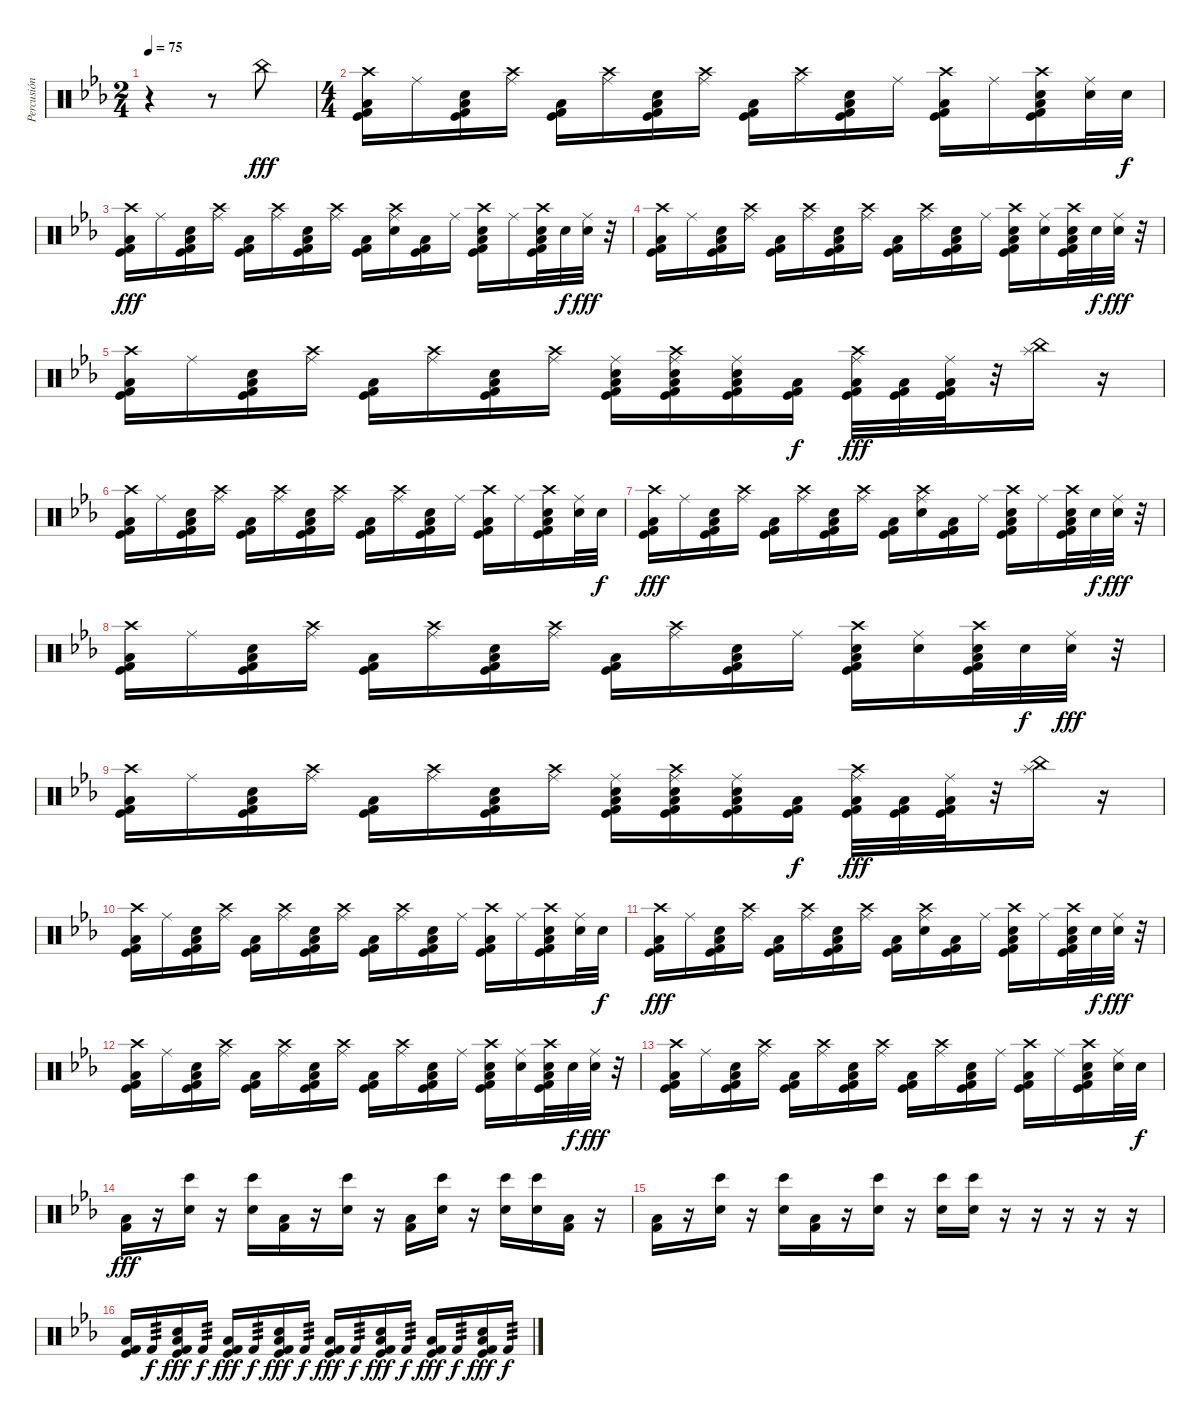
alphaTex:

\track ("Percusión" "Percusión") {instrument percussion}
\staff {score}
\articulation defaults
\ts (2 4)
\tempo 75
\clef neutral
\ks eb
r.4{dy fff} r.8 "China (hit)".8 |
\ts (4 4)
("Crash high (hit)" "Low Floor Tom (hit)" "Kick (hit) 2" "Kick (hit)").16 "Ride (middle)".16 ("Low Floor Tom (hit)" "Electric Snare (hit)" "Kick (hit) 2" "Kick (hit)").16 ("Crash high (hit)" "Ride (middle)").16 ("Low Floor Tom (hit)" "Kick (hit) 2" "Kick (hit)").16 ("Crash high (hit)" "Ride (middle)").16 ("Low Floor Tom (hit)" "Electric Snare (hit)" "Kick (hit) 2" "Kick (hit)").16 ("Crash high (hit)" "Ride (middle)").16 ("Low Floor Tom (hit)" "Kick (hit) 2" "Kick (hit)").16 ("Crash high (hit)" "Ride (middle)").16 ("Low Floor Tom (hit)" "Electric Snare (hit)" "Kick (hit) 2" "Kick (hit)").16 "Ride (middle)".16 ("Crash high (hit)" "Low Floor Tom (hit)" "Kick (hit) 2" "Kick (hit)").16 "Ride (middle)".16 ("Crash high (hit)" "Low Floor Tom (hit)" "Electric Snare (hit)" "Kick (hit) 2" "Kick (hit)").16 ("Ride (middle)" "Electric Snare (hit)").32 "Electric Snare (hit)".32{dy f} |
("Crash high (hit)" "Low Floor Tom (hit)" "Kick (hit) 2" "Kick (hit)").16{dy fff} "Ride (middle)".16 ("Low Floor Tom (hit)" "Electric Snare (hit)" "Kick (hit) 2" "Kick (hit)").16 ("Crash high (hit)" "Ride (middle)").16 ("Low Floor Tom (hit)" "Kick (hit) 2" "Kick (hit)").16 ("Crash high (hit)" "Ride (middle)").16 ("Low Floor Tom (hit)" "Electric Snare (hit)" "Kick (hit) 2" "Kick (hit)").16 ("Crash high (hit)" "Ride (middle)").16 ("Low Floor Tom (hit)" "Kick (hit) 2" "Kick (hit)").16 ("Crash high (hit)" "Ride (middle)" "Electric Snare (hit)").16 ("Low Floor Tom (hit)" "Kick (hit) 2" "Kick (hit)").16 "Ride (middle)".16 ("Crash high (hit)" "Low Floor Tom (hit)" "Electric Snare (hit)" "Kick (hit) 2" "Kick (hit)").16 "Ride (middle)".16 ("Crash high (hit)" "Low Floor Tom (hit)" "Electric Snare (hit)" "Kick (hit) 2" "Kick (hit)").32 "Electric Snare (hit)".32{dy f} ("Ride (middle)" "Electric Snare (hit)").32{dy fff} r.32 |
("Crash high (hit)" "Low Floor Tom (hit)" "Kick (hit) 2" "Kick (hit)").16 "Ride (middle)".16 ("Low Floor Tom (hit)" "Electric Snare (hit)" "Kick (hit) 2" "Kick (hit)").16 ("Crash high (hit)" "Ride (middle)").16 ("Low Floor Tom (hit)" "Kick (hit) 2" "Kick (hit)").16 ("Crash high (hit)" "Ride (middle)").16 ("Low Floor Tom (hit)" "Electric Snare (hit)" "Kick (hit) 2" "Kick (hit)").16 ("Crash high (hit)" "Ride (middle)").16 ("Low Floor Tom (hit)" "Kick (hit) 2" "Kick (hit)").16 ("Crash high (hit)" "Ride (middle)").16 ("Low Floor Tom (hit)" "Electric Snare (hit)" "Kick (hit) 2" "Kick (hit)").16 "Ride (middle)".16 ("Crash high (hit)" "Low Floor Tom (hit)" "Electric Snare (hit)" "Kick (hit) 2" "Kick (hit)").16 ("Ride (middle)" "Electric Snare (hit)").16 ("Crash high (hit)" "Low Floor Tom (hit)" "Electric Snare (hit)" "Kick (hit) 2" "Kick (hit)").32 "Electric Snare (hit)".32{dy f} ("Ride (middle)" "Electric Snare (hit)").32{dy fff} r.32 |
("Crash high (hit)" "Low Floor Tom (hit)" "Kick (hit) 2" "Kick (hit)").16 "Ride (middle)".16 ("Low Floor Tom (hit)" "Electric Snare (hit)" "Kick (hit) 2" "Kick (hit)").16 ("Crash high (hit)" "Ride (middle)").16 ("Low Floor Tom (hit)" "Kick (hit) 2" "Kick (hit)").16 ("Crash high (hit)" "Ride (middle)").16 ("Low Floor Tom (hit)" "Electric Snare (hit)" "Kick (hit) 2" "Kick (hit)").16 ("Crash high (hit)" "Ride (middle)").16 ("Ride (middle)" "Low Floor Tom (hit)" "Electric Snare (hit)" "Kick (hit) 2" "Kick (hit)").16 ("Crash high (hit)" "Ride (middle)" "Low Floor Tom (hit)" "Electric Snare (hit)" "Kick (hit) 2" "Kick (hit)").16 ("Ride (middle)" "Low Floor Tom (hit)" "Electric Snare (hit)" "Kick (hit) 2" "Kick (hit)").16 ("Low Floor Tom (hit)" "Kick (hit) 2" "Kick (hit)").16{dy f} ("Crash high (hit)" "Ride (middle)" "Low Floor Tom (hit)" "Kick (hit) 2" "Kick (hit)").32{dy fff} ("Low Floor Tom (hit)" "Kick (hit) 2" "Kick (hit)").32 ("Ride (middle)" "Low Floor Tom (hit)" "Kick (hit) 2" "Kick (hit)").32 r.32 ("Splash (hit)" "China (hit)").16 r.16 |
("Crash high (hit)" "Low Floor Tom (hit)" "Kick (hit) 2" "Kick (hit)").16 "Ride (middle)".16 ("Low Floor Tom (hit)" "Electric Snare (hit)" "Kick (hit) 2" "Kick (hit)").16 ("Crash high (hit)" "Ride (middle)").16 ("Low Floor Tom (hit)" "Kick (hit) 2" "Kick (hit)").16 ("Crash high (hit)" "Ride (middle)").16 ("Low Floor Tom (hit)" "Electric Snare (hit)" "Kick (hit) 2" "Kick (hit)").16 ("Crash high (hit)" "Ride (middle)").16 ("Low Floor Tom (hit)" "Kick (hit) 2" "Kick (hit)").16 ("Crash high (hit)" "Ride (middle)").16 ("Low Floor Tom (hit)" "Electric Snare (hit)" "Kick (hit) 2" "Kick (hit)").16 "Ride (middle)".16 ("Crash high (hit)" "Low Floor Tom (hit)" "Kick (hit) 2" "Kick (hit)").16 "Ride (middle)".16 ("Crash high (hit)" "Low Floor Tom (hit)" "Electric Snare (hit)" "Kick (hit) 2" "Kick (hit)").16 ("Ride (middle)" "Electric Snare (hit)").32 "Electric Snare (hit)".32{dy f} |
("Crash high (hit)" "Low Floor Tom (hit)" "Kick (hit) 2" "Kick (hit)").16{dy fff} "Ride (middle)".16 ("Low Floor Tom (hit)" "Electric Snare (hit)" "Kick (hit) 2" "Kick (hit)").16 ("Crash high (hit)" "Ride (middle)").16 ("Low Floor Tom (hit)" "Kick (hit) 2" "Kick (hit)").16 ("Crash high (hit)" "Ride (middle)").16 ("Low Floor Tom (hit)" "Electric Snare (hit)" "Kick (hit) 2" "Kick (hit)").16 ("Crash high (hit)" "Ride (middle)").16 ("Low Floor Tom (hit)" "Kick (hit) 2" "Kick (hit)").16 ("Crash high (hit)" "Ride (middle)" "Electric Snare (hit)").16 ("Low Floor Tom (hit)" "Kick (hit) 2" "Kick (hit)").16 "Ride (middle)".16 ("Crash high (hit)" "Low Floor Tom (hit)" "Electric Snare (hit)" "Kick (hit) 2" "Kick (hit)").16 "Ride (middle)".16 ("Crash high (hit)" "Low Floor Tom (hit)" "Electric Snare (hit)" "Kick (hit) 2" "Kick (hit)").32 "Electric Snare (hit)".32{dy f} ("Ride (middle)" "Electric Snare (hit)").32{dy fff} r.32 |
("Crash high (hit)" "Low Floor Tom (hit)" "Kick (hit) 2" "Kick (hit)").16 "Ride (middle)".16 ("Low Floor Tom (hit)" "Electric Snare (hit)" "Kick (hit) 2" "Kick (hit)").16 ("Crash high (hit)" "Ride (middle)").16 ("Low Floor Tom (hit)" "Kick (hit) 2" "Kick (hit)").16 ("Crash high (hit)" "Ride (middle)").16 ("Low Floor Tom (hit)" "Electric Snare (hit)" "Kick (hit) 2" "Kick (hit)").16 ("Crash high (hit)" "Ride (middle)").16 ("Low Floor Tom (hit)" "Kick (hit) 2" "Kick (hit)").16 ("Crash high (hit)" "Ride (middle)").16 ("Low Floor Tom (hit)" "Electric Snare (hit)" "Kick (hit) 2" "Kick (hit)").16 "Ride (middle)".16 ("Crash high (hit)" "Low Floor Tom (hit)" "Electric Snare (hit)" "Kick (hit) 2" "Kick (hit)").16 ("Ride (middle)" "Electric Snare (hit)").16 ("Crash high (hit)" "Low Floor Tom (hit)" "Electric Snare (hit)" "Kick (hit) 2" "Kick (hit)").32 "Electric Snare (hit)".32{dy f} ("Ride (middle)" "Electric Snare (hit)").32{dy fff} r.32 |
("Crash high (hit)" "Low Floor Tom (hit)" "Kick (hit) 2" "Kick (hit)").16 "Ride (middle)".16 ("Low Floor Tom (hit)" "Electric Snare (hit)" "Kick (hit) 2" "Kick (hit)").16 ("Crash high (hit)" "Ride (middle)").16 ("Low Floor Tom (hit)" "Kick (hit) 2" "Kick (hit)").16 ("Crash high (hit)" "Ride (middle)").16 ("Low Floor Tom (hit)" "Electric Snare (hit)" "Kick (hit) 2" "Kick (hit)").16 ("Crash high (hit)" "Ride (middle)").16 ("Ride (middle)" "Low Floor Tom (hit)" "Electric Snare (hit)" "Kick (hit) 2" "Kick (hit)").16 ("Crash high (hit)" "Ride (middle)" "Low Floor Tom (hit)" "Electric Snare (hit)" "Kick (hit) 2" "Kick (hit)").16 ("Ride (middle)" "Low Floor Tom (hit)" "Electric Snare (hit)" "Kick (hit) 2" "Kick (hit)").16 ("Low Floor Tom (hit)" "Kick (hit) 2" "Kick (hit)").16{dy f} ("Crash high (hit)" "Ride (middle)" "Low Floor Tom (hit)" "Kick (hit) 2" "Kick (hit)").32{dy fff} ("Low Floor Tom (hit)" "Kick (hit) 2" "Kick (hit)").32 ("Ride (middle)" "Low Floor Tom (hit)" "Kick (hit) 2" "Kick (hit)").32 r.32 ("Splash (hit)" "China (hit)").16 r.16 |
("Crash high (hit)" "Low Floor Tom (hit)" "Kick (hit) 2" "Kick (hit)").16 "Ride (middle)".16 ("Low Floor Tom (hit)" "Electric Snare (hit)" "Kick (hit) 2" "Kick (hit)").16 ("Crash high (hit)" "Ride (middle)").16 ("Low Floor Tom (hit)" "Kick (hit) 2" "Kick (hit)").16 ("Crash high (hit)" "Ride (middle)").16 ("Low Floor Tom (hit)" "Electric Snare (hit)" "Kick (hit) 2" "Kick (hit)").16 ("Crash high (hit)" "Ride (middle)").16 ("Low Floor Tom (hit)" "Kick (hit) 2" "Kick (hit)").16 ("Crash high (hit)" "Ride (middle)").16 ("Low Floor Tom (hit)" "Electric Snare (hit)" "Kick (hit) 2" "Kick (hit)").16 "Ride (middle)".16 ("Crash high (hit)" "Low Floor Tom (hit)" "Kick (hit) 2" "Kick (hit)").16 "Ride (middle)".16 ("Crash high (hit)" "Low Floor Tom (hit)" "Electric Snare (hit)" "Kick (hit) 2" "Kick (hit)").16 ("Ride (middle)" "Electric Snare (hit)").32 "Electric Snare (hit)".32{dy f} |
("Crash high (hit)" "Low Floor Tom (hit)" "Kick (hit) 2" "Kick (hit)").16{dy fff} "Ride (middle)".16 ("Low Floor Tom (hit)" "Electric Snare (hit)" "Kick (hit) 2" "Kick (hit)").16 ("Crash high (hit)" "Ride (middle)").16 ("Low Floor Tom (hit)" "Kick (hit) 2" "Kick (hit)").16 ("Crash high (hit)" "Ride (middle)").16 ("Low Floor Tom (hit)" "Electric Snare (hit)" "Kick (hit) 2" "Kick (hit)").16 ("Crash high (hit)" "Ride (middle)").16 ("Low Floor Tom (hit)" "Kick (hit) 2" "Kick (hit)").16 ("Crash high (hit)" "Ride (middle)" "Electric Snare (hit)").16 ("Low Floor Tom (hit)" "Kick (hit) 2" "Kick (hit)").16 "Ride (middle)".16 ("Crash high (hit)" "Low Floor Tom (hit)" "Electric Snare (hit)" "Kick (hit) 2" "Kick (hit)").16 "Ride (middle)".16 ("Crash high (hit)" "Low Floor Tom (hit)" "Electric Snare (hit)" "Kick (hit) 2" "Kick (hit)").32 "Electric Snare (hit)".32{dy f} ("Ride (middle)" "Electric Snare (hit)").32{dy fff} r.32 |
("Crash high (hit)" "Low Floor Tom (hit)" "Kick (hit) 2" "Kick (hit)").16 "Ride (middle)".16 ("Low Floor Tom (hit)" "Electric Snare (hit)" "Kick (hit) 2" "Kick (hit)").16 ("Crash high (hit)" "Ride (middle)").16 ("Low Floor Tom (hit)" "Kick (hit) 2" "Kick (hit)").16 ("Crash high (hit)" "Ride (middle)").16 ("Low Floor Tom (hit)" "Electric Snare (hit)" "Kick (hit) 2" "Kick (hit)").16 ("Crash high (hit)" "Ride (middle)").16 ("Low Floor Tom (hit)" "Kick (hit) 2" "Kick (hit)").16 ("Crash high (hit)" "Ride (middle)").16 ("Low Floor Tom (hit)" "Electric Snare (hit)" "Kick (hit) 2" "Kick (hit)").16 "Ride (middle)".16 ("Crash high (hit)" "Low Floor Tom (hit)" "Electric Snare (hit)" "Kick (hit) 2" "Kick (hit)").16 ("Ride (middle)" "Electric Snare (hit)").16 ("Crash high (hit)" "Low Floor Tom (hit)" "Electric Snare (hit)" "Kick (hit) 2" "Kick (hit)").32 "Electric Snare (hit)".32{dy f} ("Ride (middle)" "Electric Snare (hit)").32{dy fff} r.32 |
("Crash high (hit)" "Low Floor Tom (hit)" "Kick (hit) 2" "Kick (hit)").16 "Ride (middle)".16 ("Low Floor Tom (hit)" "Electric Snare (hit)" "Kick (hit) 2" "Kick (hit)").16 ("Crash high (hit)" "Ride (middle)").16 ("Low Floor Tom (hit)" "Kick (hit) 2" "Kick (hit)").16 ("Crash high (hit)" "Ride (middle)").16 ("Low Floor Tom (hit)" "Electric Snare (hit)" "Kick (hit) 2" "Kick (hit)").16 ("Crash high (hit)" "Ride (middle)").16 ("Low Floor Tom (hit)" "Kick (hit) 2" "Kick (hit)").16 ("Crash high (hit)" "Ride (middle)").16 ("Low Floor Tom (hit)" "Electric Snare (hit)" "Kick (hit) 2" "Kick (hit)").16 "Ride (middle)".16 ("Crash high (hit)" "Low Floor Tom (hit)" "Kick (hit) 2" "Kick (hit)").16 "Ride (middle)".16 ("Crash high (hit)" "Low Floor Tom (hit)" "Electric Snare (hit)" "Kick (hit) 2" "Kick (hit)").16 ("Ride (middle)" "Electric Snare (hit)").32 "Electric Snare (hit)".32{dy f} |
("Low Floor Tom (hit)" "Kick (hit) 2").16{dy fff} r.16 ("Snare (hit) 2" "Bongo High (hit)").16 r.16 ("Snare (hit) 2" "Bongo High (hit)").16 ("Low Floor Tom (hit)" "Kick (hit) 2").16 r.16 ("Snare (hit) 2" "Bongo High (hit)").16 r.16 ("Low Floor Tom (hit)" "Kick (hit) 2").16 ("Snare (hit) 2" "Bongo High (hit)").16 r.16 ("Snare (hit) 2" "Bongo High (hit)").16 ("Snare (hit) 2" "Bongo High (hit)").16 ("Low Floor Tom (hit)" "Kick (hit) 2").16 r.16 |
("Low Floor Tom (hit)" "Kick (hit) 2").16 r.16 ("Snare (hit) 2" "Bongo High (hit)").16 r.16 ("Snare (hit) 2" "Bongo High (hit)").16 ("Low Floor Tom (hit)" "Kick (hit) 2").16 r.16 ("Snare (hit) 2" "Bongo High (hit)").16 r.16 ("Snare (hit) 2" "Bongo High (hit)").16 ("Snare (hit) 2" "Bongo High (hit)").16 r.16 r.16 r.16 r.16 r.16 |
("Low Floor Tom (hit)" "Kick (hit) 2" "Kick (hit)").16 "Kick (hit) 2".16{tp 3 dy f} ("Low Floor Tom (hit)" "Electric Snare (hit)" "Kick (hit) 2" "Kick (hit)").16{dy fff} "Kick (hit) 2".16{tp 3 dy f} ("Low Floor Tom (hit)" "Kick (hit) 2" "Kick (hit)").16{dy fff} "Kick (hit) 2".16{tp 3 dy f} ("Low Floor Tom (hit)" "Electric Snare (hit)" "Kick (hit) 2" "Kick (hit)").16{dy fff} "Kick (hit) 2".16{tp 3 dy f} ("Low Floor Tom (hit)" "Kick (hit) 2" "Kick (hit)").16{dy fff} "Kick (hit) 2".16{tp 3 dy f} ("Low Floor Tom (hit)" "Electric Snare (hit)" "Kick (hit) 2" "Kick (hit)").16{dy fff} "Kick (hit) 2".16{tp 3 dy f} ("Low Floor Tom (hit)" "Kick (hit) 2" "Kick (hit)").16{dy fff} "Kick (hit) 2".16{tp 3 dy f} ("Low Floor Tom (hit)" "Electric Snare (hit)" "Kick (hit) 2" "Kick (hit)").16{dy fff} "Kick (hit) 2".16{tp 3 dy f}
